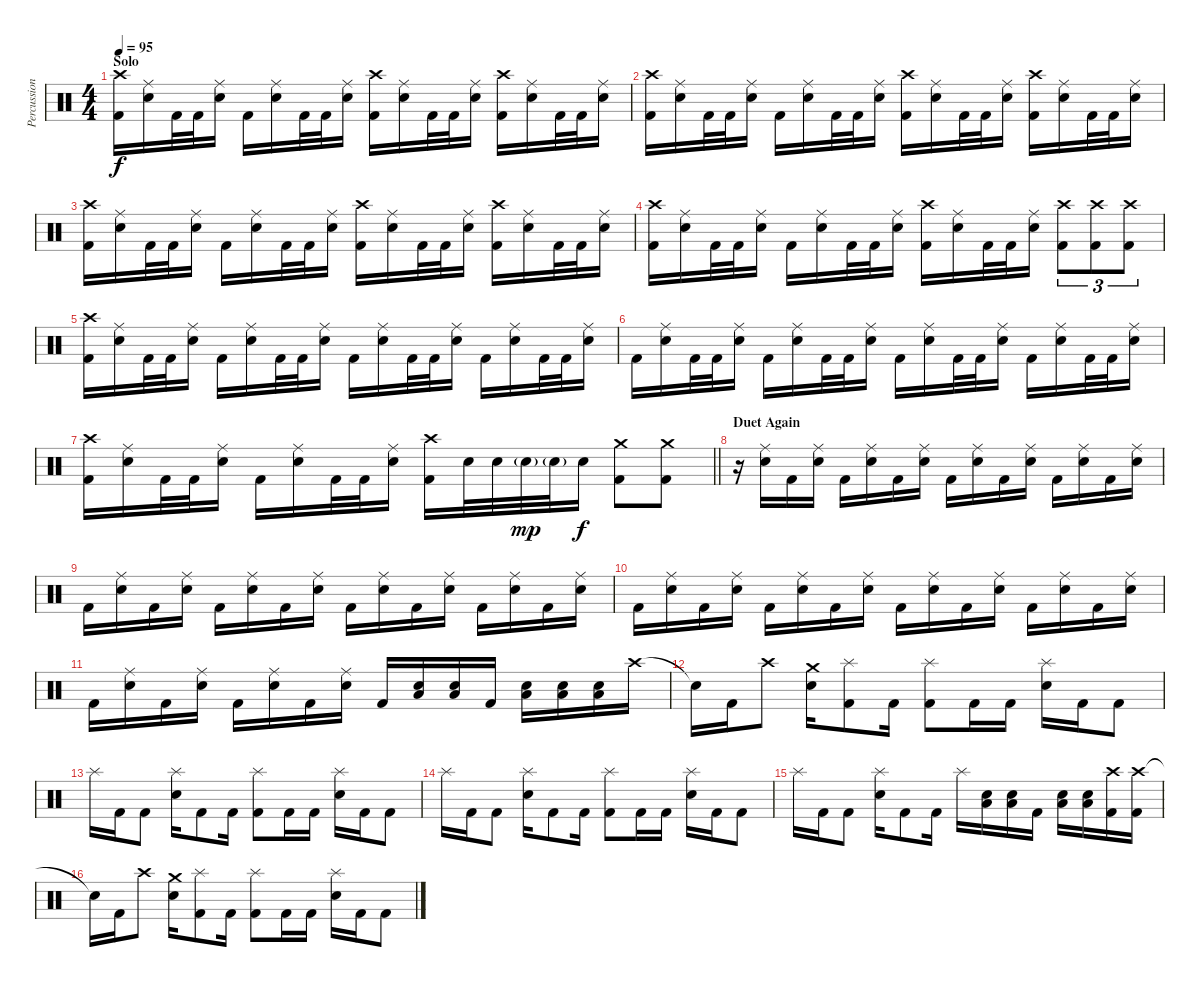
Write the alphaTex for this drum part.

\track ("Percussion Mike" "Percussion") {instrument percussion}
\staff {score}
\articulation defaults
\ts (4 4)
\section ("" "Solo")
\tempo 95
\clef neutral
\ks c
("Crash high (hit)" "Kick (hit) 2").16{dy f} ("Ride (middle)" "Snare (hit) 2").16 "Kick (hit) 2".32 "Kick (hit) 2".32 ("Ride (middle)" "Snare (hit) 2").16 "Kick (hit) 2".16 ("Ride (middle)" "Snare (hit) 2").16 "Kick (hit) 2".32 "Kick (hit) 2".32 ("Ride (middle)" "Snare (hit) 2").16 ("Crash high (hit)" "Kick (hit) 2").16 ("Ride (middle)" "Snare (hit) 2").16 "Kick (hit) 2".32 "Kick (hit) 2".32 ("Ride (middle)" "Snare (hit) 2").16 ("Crash high (hit)" "Kick (hit) 2").16 ("Ride (middle)" "Snare (hit) 2").16 "Kick (hit) 2".32 "Kick (hit) 2".32 ("Ride (middle)" "Snare (hit) 2").16 |
("Crash high (hit)" "Kick (hit) 2").16 ("Ride (middle)" "Snare (hit) 2").16 "Kick (hit) 2".32 "Kick (hit) 2".32 ("Ride (middle)" "Snare (hit) 2").16 "Kick (hit) 2".16 ("Ride (middle)" "Snare (hit) 2").16 "Kick (hit) 2".32 "Kick (hit) 2".32 ("Ride (middle)" "Snare (hit) 2").16 ("Crash high (hit)" "Kick (hit) 2").16 ("Ride (middle)" "Snare (hit) 2").16 "Kick (hit) 2".32 "Kick (hit) 2".32 ("Ride (middle)" "Snare (hit) 2").16 ("Crash high (hit)" "Kick (hit) 2").16 ("Ride (middle)" "Snare (hit) 2").16 "Kick (hit) 2".32 "Kick (hit) 2".32 ("Ride (middle)" "Snare (hit) 2").16 |
("Crash high (hit)" "Kick (hit) 2").16 ("Ride (middle)" "Snare (hit) 2").16 "Kick (hit) 2".32 "Kick (hit) 2".32 ("Ride (middle)" "Snare (hit) 2").16 "Kick (hit) 2".16 ("Ride (middle)" "Snare (hit) 2").16 "Kick (hit) 2".32 "Kick (hit) 2".32 ("Ride (middle)" "Snare (hit) 2").16 ("Crash high (hit)" "Kick (hit) 2").16 ("Ride (middle)" "Snare (hit) 2").16 "Kick (hit) 2".32 "Kick (hit) 2".32 ("Ride (middle)" "Snare (hit) 2").16 ("Crash high (hit)" "Kick (hit) 2").16 ("Ride (middle)" "Snare (hit) 2").16 "Kick (hit) 2".32 "Kick (hit) 2".32 ("Ride (middle)" "Snare (hit) 2").16 |
("Crash high (hit)" "Kick (hit) 2").16 ("Ride (middle)" "Snare (hit) 2").16 "Kick (hit) 2".32 "Kick (hit) 2".32 ("Ride (middle)" "Snare (hit) 2").16 "Kick (hit) 2".16 ("Ride (middle)" "Snare (hit) 2").16 "Kick (hit) 2".32 "Kick (hit) 2".32 ("Ride (middle)" "Snare (hit) 2").16 ("Crash high (hit)" "Kick (hit) 2").16 ("Ride (middle)" "Snare (hit) 2").16 "Kick (hit) 2".32 "Kick (hit) 2".32 ("Ride (middle)" "Snare (hit) 2").16 ("Crash high (hit)" "Kick (hit) 2").8{tu (3 2)} ("Crash high (hit)" "Kick (hit) 2").8{tu (3 2)} ("Crash high (hit)" "Kick (hit) 2").8{tu (3 2)} |
("Crash high (hit)" "Kick (hit) 2").16 ("Ride (middle)" "Snare (hit) 2").16 "Kick (hit) 2".32 "Kick (hit) 2".32 ("Ride (middle)" "Snare (hit) 2").16 "Kick (hit) 2".16 ("Ride (middle)" "Snare (hit) 2").16 "Kick (hit) 2".32 "Kick (hit) 2".32 ("Ride (middle)" "Snare (hit) 2").16 "Kick (hit) 2".16 ("Ride (middle)" "Snare (hit) 2").16 "Kick (hit) 2".32 "Kick (hit) 2".32 ("Ride (middle)" "Snare (hit) 2").16 "Kick (hit) 2".16 ("Ride (middle)" "Snare (hit) 2").16 "Kick (hit) 2".32 "Kick (hit) 2".32 ("Ride (middle)" "Snare (hit) 2").16 |
"Kick (hit) 2".16 ("Ride (middle)" "Snare (hit) 2").16 "Kick (hit) 2".32 "Kick (hit) 2".32 ("Ride (middle)" "Snare (hit) 2").16 "Kick (hit) 2".16 ("Ride (middle)" "Snare (hit) 2").16 "Kick (hit) 2".32 "Kick (hit) 2".32 ("Ride (middle)" "Snare (hit) 2").16 "Kick (hit) 2".16 ("Ride (middle)" "Snare (hit) 2").16 "Kick (hit) 2".32 "Kick (hit) 2".32 ("Ride (middle)" "Snare (hit) 2").16 "Kick (hit) 2".16 ("Ride (middle)" "Snare (hit) 2").16 "Kick (hit) 2".32 "Kick (hit) 2".32 ("Ride (middle)" "Snare (hit) 2").16 |
\barLineRight lightlight
("Crash high (hit)" "Kick (hit) 2").16 ("Ride (middle)" "Snare (hit) 2").16 "Kick (hit) 2".32 "Kick (hit) 2".32 ("Ride (middle)" "Snare (hit) 2").16 "Kick (hit) 2".16 ("Ride (middle)" "Snare (hit) 2").16 "Kick (hit) 2".32 "Kick (hit) 2".32 ("Ride (middle)" "Snare (hit) 2").16 ("Crash high (hit)" "Kick (hit) 2").16 "Snare (hit) 2".32 "Snare (hit) 2".32 "Snare (hit) 2"{g}.32{dy mp} "Snare (hit) 2"{g}.32 "Snare (hit) 2".16{dy f} ("Crash medium (hit)" "Kick (hit) 2").8 ("Crash medium (hit)" "Kick (hit) 2").8 |
\section ("" "Duet Again")
r.16 ("Ride (middle)" "Snare (hit) 2").16 "Kick (hit) 2".16 ("Ride (middle)" "Snare (hit) 2").16 "Kick (hit) 2".16 ("Ride (middle)" "Snare (hit) 2").16 "Kick (hit) 2".16 ("Ride (middle)" "Snare (hit) 2").16 "Kick (hit) 2".16 ("Ride (middle)" "Snare (hit) 2").16 "Kick (hit) 2".16 ("Ride (middle)" "Snare (hit) 2").16 "Kick (hit) 2".16 ("Ride (middle)" "Snare (hit) 2").16 "Kick (hit) 2".16 ("Ride (middle)" "Snare (hit) 2").16 |
"Kick (hit) 2".16 ("Ride (middle)" "Snare (hit) 2").16 "Kick (hit) 2".16 ("Ride (middle)" "Snare (hit) 2").16 "Kick (hit) 2".16 ("Ride (middle)" "Snare (hit) 2").16 "Kick (hit) 2".16 ("Ride (middle)" "Snare (hit) 2").16 "Kick (hit) 2".16 ("Ride (middle)" "Snare (hit) 2").16 "Kick (hit) 2".16 ("Ride (middle)" "Snare (hit) 2").16 "Kick (hit) 2".16 ("Ride (middle)" "Snare (hit) 2").16 "Kick (hit) 2".16 ("Ride (middle)" "Snare (hit) 2").16 |
"Kick (hit) 2".16 ("Ride (middle)" "Snare (hit) 2").16 "Kick (hit) 2".16 ("Ride (middle)" "Snare (hit) 2").16 "Kick (hit) 2".16 ("Ride (middle)" "Snare (hit) 2").16 "Kick (hit) 2".16 ("Ride (middle)" "Snare (hit) 2").16 "Kick (hit) 2".16 ("Ride (middle)" "Snare (hit) 2").16 "Kick (hit) 2".16 ("Ride (middle)" "Snare (hit) 2").16 "Kick (hit) 2".16 ("Ride (middle)" "Snare (hit) 2").16 "Kick (hit) 2".16 ("Ride (middle)" "Snare (hit) 2").16 |
"Kick (hit) 2".16 ("Ride (middle)" "Snare (hit) 2").16 "Kick (hit) 2".16 ("Ride (middle)" "Snare (hit) 2").16 "Kick (hit) 2".16 ("Ride (middle)" "Snare (hit) 2").16 "Kick (hit) 2".16 ("Ride (middle)" "Snare (hit) 2").16 "Kick (hit) 2".16 ("Snare (hit) 2" "Low Floor Tom (hit)").16 ("Snare (hit) 2" "Low Floor Tom (hit)").16 "Kick (hit) 2".16 ("Snare (hit) 2" "Low Floor Tom (hit)").16 ("Snare (hit) 2" "Low Floor Tom (hit)").16 ("Snare (hit) 2" "Low Floor Tom (hit)").16 "Crash high (hit)".16 |
"Snare (hit)"{t}.16 "Kick (hit) 2".16 "Crash high (hit)".8 ("Crash medium (hit)" "Snare (hit) 2").16 ("Splash (hit)" "Kick (hit) 2").8 "Kick (hit) 2".16 ("Splash (hit)" "Kick (hit) 2").8 "Kick (hit) 2".16 "Kick (hit) 2".16 ("Splash (hit)" "Snare (hit) 2").16 "Kick (hit) 2".16 "Kick (hit) 2".8 |
"Splash (hit)".16 "Kick (hit) 2".16 "Kick (hit) 2".8 ("Splash (hit)" "Snare (hit) 2").16 "Kick (hit) 2".8 "Kick (hit) 2".16 ("Splash (hit)" "Kick (hit) 2").8 "Kick (hit) 2".16 "Kick (hit) 2".16 ("Splash (hit)" "Snare (hit) 2").16 "Kick (hit) 2".16 "Kick (hit) 2".8 |
"Splash (hit)".16 "Kick (hit) 2".16 "Kick (hit) 2".8 ("Splash (hit)" "Snare (hit) 2").16 "Kick (hit) 2".8 "Kick (hit) 2".16 ("Splash (hit)" "Kick (hit) 2").8 "Kick (hit) 2".16 "Kick (hit) 2".16 ("Splash (hit)" "Snare (hit) 2").16 "Kick (hit) 2".16 "Kick (hit) 2".8 |
"Splash (hit)".16 "Kick (hit) 2".16 "Kick (hit) 2".8 ("Splash (hit)" "Snare (hit) 2").16 "Kick (hit) 2".8 "Kick (hit) 2".16 "Splash (hit)".16 ("Snare (hit) 2" "Low Floor Tom (hit)").16 ("Snare (hit) 2" "Low Floor Tom (hit)").16 "Kick (hit) 2".16 ("Snare (hit) 2" "Low Floor Tom (hit)").16 ("Snare (hit) 2" "Low Floor Tom (hit)").16 ("Crash high (hit)" "Kick (hit) 2").16 ("Crash high (hit)" "Kick (hit) 2").16 |
"Snare (hit)"{t}.16 "Kick (hit) 2".16 "Crash high (hit)".8 ("Crash medium (hit)" "Snare (hit) 2").16 ("Splash (hit)" "Kick (hit) 2").8 "Kick (hit) 2".16 ("Splash (hit)" "Kick (hit) 2").8 "Kick (hit) 2".16 "Kick (hit) 2".16 ("Splash (hit)" "Snare (hit) 2").16 "Kick (hit) 2".16 "Kick (hit) 2".8
